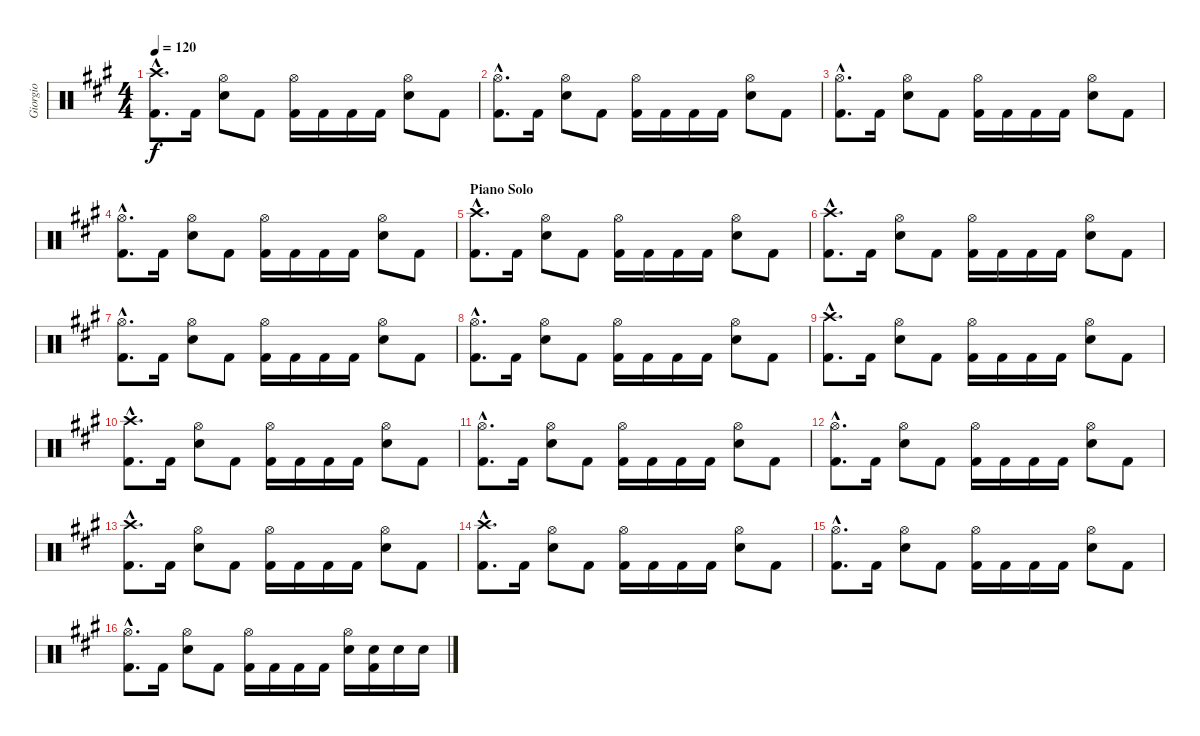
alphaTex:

\track ("Giorgio" "Giorgio") {instrument percussion}
\staff {score}
\articulation defaults
\ts (4 4)
\tempo 120
\clef neutral
\ks f#minor
("Crash high (hit)"{hac} "Kick (hit) 2"{hac}).8{d dy f} "Kick (hit) 2".16 ("Hi-Hat (open)" "Snare (hit) 2").8 "Kick (hit) 2".8 ("Hi-Hat (open)" "Kick (hit) 2").16 "Kick (hit) 2".16 "Kick (hit) 2".16 "Kick (hit) 2".16 ("Hi-Hat (open)" "Snare (hit) 2").8 "Kick (hit) 2".8 |
("Hi-Hat (open)"{hac} "Kick (hit) 2"{hac}).8{d} "Kick (hit) 2".16 ("Hi-Hat (open)" "Snare (hit) 2").8 "Kick (hit) 2".8 ("Hi-Hat (open)" "Kick (hit) 2").16 "Kick (hit) 2".16 "Kick (hit) 2".16 "Kick (hit) 2".16 ("Hi-Hat (open)" "Snare (hit) 2").8 "Kick (hit) 2".8 |
("Hi-Hat (open)"{hac} "Kick (hit) 2"{hac}).8{d} "Kick (hit) 2".16 ("Hi-Hat (open)" "Snare (hit) 2").8 "Kick (hit) 2".8 ("Hi-Hat (open)" "Kick (hit) 2").16 "Kick (hit) 2".16 "Kick (hit) 2".16 "Kick (hit) 2".16 ("Hi-Hat (open)" "Snare (hit) 2").8 "Kick (hit) 2".8 |
("Hi-Hat (open)"{hac} "Kick (hit) 2"{hac}).8{d} "Kick (hit) 2".16 ("Hi-Hat (open)" "Snare (hit) 2").8 "Kick (hit) 2".8 ("Hi-Hat (open)" "Kick (hit) 2").16 "Kick (hit) 2".16 "Kick (hit) 2".16 "Kick (hit) 2".16 ("Hi-Hat (open)" "Snare (hit) 2").8 "Kick (hit) 2".8 |
\section ("" "Piano Solo")
("Crash high (hit)"{hac} "Kick (hit) 2"{hac}).8{d} "Kick (hit) 2".16 ("Hi-Hat (open)" "Snare (hit) 2").8 "Kick (hit) 2".8 ("Hi-Hat (open)" "Kick (hit) 2").16 "Kick (hit) 2".16 "Kick (hit) 2".16 "Kick (hit) 2".16 ("Hi-Hat (open)" "Snare (hit) 2").8 "Kick (hit) 2".8 |
("Crash high (hit)"{hac} "Kick (hit) 2"{hac}).8{d} "Kick (hit) 2".16 ("Hi-Hat (open)" "Snare (hit) 2").8 "Kick (hit) 2".8 ("Hi-Hat (open)" "Kick (hit) 2").16 "Kick (hit) 2".16 "Kick (hit) 2".16 "Kick (hit) 2".16 ("Hi-Hat (open)" "Snare (hit) 2").8 "Kick (hit) 2".8 |
("Hi-Hat (open)"{hac} "Kick (hit) 2"{hac}).8{d} "Kick (hit) 2".16 ("Hi-Hat (open)" "Snare (hit) 2").8 "Kick (hit) 2".8 ("Hi-Hat (open)" "Kick (hit) 2").16 "Kick (hit) 2".16 "Kick (hit) 2".16 "Kick (hit) 2".16 ("Hi-Hat (open)" "Snare (hit) 2").8 "Kick (hit) 2".8 |
("Hi-Hat (open)"{hac} "Kick (hit) 2"{hac}).8{d} "Kick (hit) 2".16 ("Hi-Hat (open)" "Snare (hit) 2").8 "Kick (hit) 2".8 ("Hi-Hat (open)" "Kick (hit) 2").16 "Kick (hit) 2".16 "Kick (hit) 2".16 "Kick (hit) 2".16 ("Hi-Hat (open)" "Snare (hit) 2").8 "Kick (hit) 2".8 |
("Crash high (hit)"{hac} "Kick (hit) 2"{hac}).8{d} "Kick (hit) 2".16 ("Hi-Hat (open)" "Snare (hit) 2").8 "Kick (hit) 2".8 ("Hi-Hat (open)" "Kick (hit) 2").16 "Kick (hit) 2".16 "Kick (hit) 2".16 "Kick (hit) 2".16 ("Hi-Hat (open)" "Snare (hit) 2").8 "Kick (hit) 2".8 |
("Crash high (hit)"{hac} "Kick (hit) 2"{hac}).8{d} "Kick (hit) 2".16 ("Hi-Hat (open)" "Snare (hit) 2").8 "Kick (hit) 2".8 ("Hi-Hat (open)" "Kick (hit) 2").16 "Kick (hit) 2".16 "Kick (hit) 2".16 "Kick (hit) 2".16 ("Hi-Hat (open)" "Snare (hit) 2").8 "Kick (hit) 2".8 |
("Hi-Hat (open)"{hac} "Kick (hit) 2"{hac}).8{d} "Kick (hit) 2".16 ("Hi-Hat (open)" "Snare (hit) 2").8 "Kick (hit) 2".8 ("Hi-Hat (open)" "Kick (hit) 2").16 "Kick (hit) 2".16 "Kick (hit) 2".16 "Kick (hit) 2".16 ("Hi-Hat (open)" "Snare (hit) 2").8 "Kick (hit) 2".8 |
("Hi-Hat (open)"{hac} "Kick (hit) 2"{hac}).8{d} "Kick (hit) 2".16 ("Hi-Hat (open)" "Snare (hit) 2").8 "Kick (hit) 2".8 ("Hi-Hat (open)" "Kick (hit) 2").16 "Kick (hit) 2".16 "Kick (hit) 2".16 "Kick (hit) 2".16 ("Hi-Hat (open)" "Snare (hit) 2").8 "Kick (hit) 2".8 |
("Crash high (hit)"{hac} "Kick (hit) 2"{hac}).8{d} "Kick (hit) 2".16 ("Hi-Hat (open)" "Snare (hit) 2").8 "Kick (hit) 2".8 ("Hi-Hat (open)" "Kick (hit) 2").16 "Kick (hit) 2".16 "Kick (hit) 2".16 "Kick (hit) 2".16 ("Hi-Hat (open)" "Snare (hit) 2").8 "Kick (hit) 2".8 |
("Crash high (hit)"{hac} "Kick (hit) 2"{hac}).8{d} "Kick (hit) 2".16 ("Hi-Hat (open)" "Snare (hit) 2").8 "Kick (hit) 2".8 ("Hi-Hat (open)" "Kick (hit) 2").16 "Kick (hit) 2".16 "Kick (hit) 2".16 "Kick (hit) 2".16 ("Hi-Hat (open)" "Snare (hit) 2").8 "Kick (hit) 2".8 |
("Hi-Hat (open)"{hac} "Kick (hit) 2"{hac}).8{d} "Kick (hit) 2".16 ("Hi-Hat (open)" "Snare (hit) 2").8 "Kick (hit) 2".8 ("Hi-Hat (open)" "Kick (hit) 2").16 "Kick (hit) 2".16 "Kick (hit) 2".16 "Kick (hit) 2".16 ("Hi-Hat (open)" "Snare (hit) 2").8 "Kick (hit) 2".8 |
("Hi-Hat (open)"{hac} "Kick (hit) 2"{hac}).8{d} "Kick (hit) 2".16 ("Hi-Hat (open)" "Snare (hit) 2").8 "Kick (hit) 2".8 ("Hi-Hat (open)" "Kick (hit) 2").16 "Kick (hit) 2".16 "Kick (hit) 2".16 "Kick (hit) 2".16 ("Hi-Hat (open)" "Snare (hit) 2").16 ("Snare (hit) 2" "Kick (hit) 2").16 "Snare (hit) 2".16 "Snare (hit) 2".16
